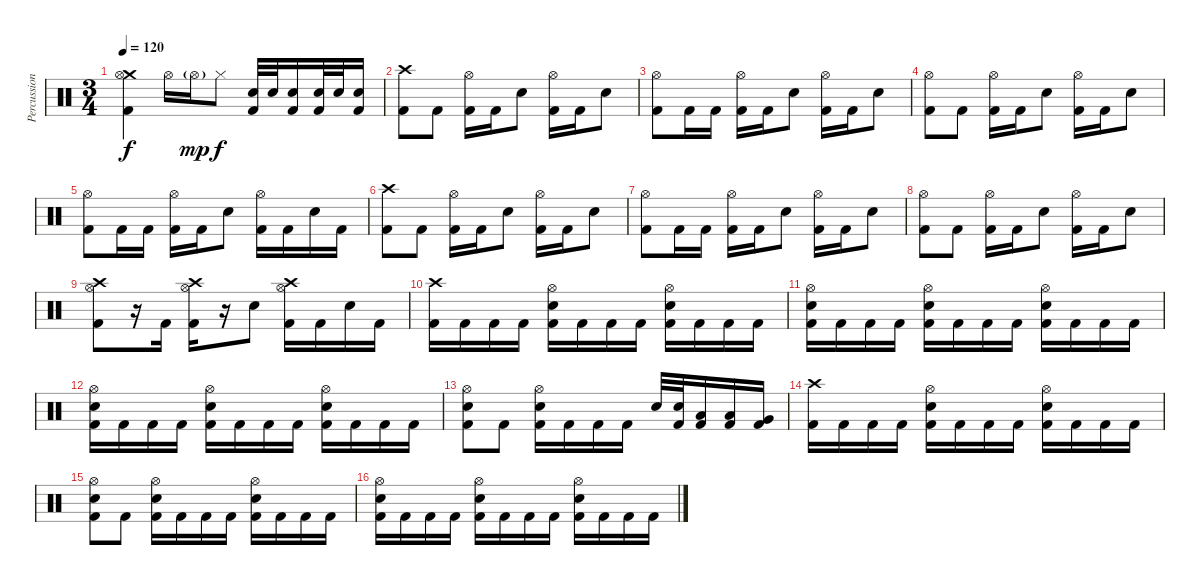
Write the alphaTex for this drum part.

\track ("Percussion" "Percussion") {instrument percussion}
\staff {score}
\articulation defaults
\ts (3 4)
\tempo 120
\clef neutral
\ks c
("Crash medium (hit)" "Hi-Hat (open)"{t} "Kick (hit) 2").4{dy f} "Hi-Hat (open)".16 "Hi-Hat (open)"{g}.16{dy mp} "Hi-Hat (closed)".8{dy f} ("Electric Snare (hit)" "Kick (hit) 2").32 "Electric Snare (hit)".32 ("Electric Snare (hit)" "Kick (hit) 2").16 ("Electric Snare (hit)" "Kick (hit) 2").32 "Electric Snare (hit)".32 ("Electric Snare (hit)" "Kick (hit) 2").16 |
("Crash high (hit)" "Kick (hit) 2").8 "Kick (hit) 2".8 ("Hi-Hat (open)" "Kick (hit) 2").16 "Kick (hit) 2".16 "Electric Snare (hit)".8 ("Hi-Hat (open)" "Kick (hit) 2").16 "Kick (hit) 2".16 "Electric Snare (hit)".8 |
("Hi-Hat (open)" "Kick (hit) 2").8 "Kick (hit) 2".16 "Kick (hit) 2".16 ("Hi-Hat (open)" "Kick (hit) 2").16 "Kick (hit) 2".16 "Electric Snare (hit)".8 ("Hi-Hat (open)" "Kick (hit) 2").16 "Kick (hit) 2".16 "Electric Snare (hit)".8 |
("Hi-Hat (open)" "Kick (hit) 2").8 "Kick (hit) 2".8 ("Hi-Hat (open)" "Kick (hit) 2").16 "Kick (hit) 2".16 "Electric Snare (hit)".8 ("Hi-Hat (open)" "Kick (hit) 2").16 "Kick (hit) 2".16 "Electric Snare (hit)".8 |
("Hi-Hat (open)" "Kick (hit) 2").8 "Kick (hit) 2".16 "Kick (hit) 2".16 ("Hi-Hat (open)" "Kick (hit) 2").16 "Kick (hit) 2".16 "Electric Snare (hit)".8 ("Hi-Hat (open)" "Kick (hit) 2").16 "Kick (hit) 2".16 "Electric Snare (hit)".16 "Kick (hit) 2".16 |
("Crash high (hit)" "Kick (hit) 2").8 "Kick (hit) 2".8 ("Hi-Hat (open)" "Kick (hit) 2").16 "Kick (hit) 2".16 "Electric Snare (hit)".8 ("Hi-Hat (open)" "Kick (hit) 2").16 "Kick (hit) 2".16 "Electric Snare (hit)".8 |
("Hi-Hat (open)" "Kick (hit) 2").8 "Kick (hit) 2".16 "Kick (hit) 2".16 ("Hi-Hat (open)" "Kick (hit) 2").16 "Kick (hit) 2".16 "Electric Snare (hit)".8 ("Hi-Hat (open)" "Kick (hit) 2").16 "Kick (hit) 2".16 "Electric Snare (hit)".8 |
("Hi-Hat (open)" "Kick (hit) 2").8 "Kick (hit) 2".8 ("Hi-Hat (open)" "Kick (hit) 2").16 "Kick (hit) 2".16 "Electric Snare (hit)".8 ("Hi-Hat (open)" "Kick (hit) 2").16 "Kick (hit) 2".16 "Electric Snare (hit)".8 |
("Crash high (hit)" "Hi-Hat (open)" "Kick (hit) 2").8 r.16 "Kick (hit) 2".16 ("Crash high (hit)" "Hi-Hat (open)" "Kick (hit) 2").16 r.16 "Electric Snare (hit)".8 ("Crash high (hit)" "Hi-Hat (open)" "Kick (hit) 2").16 "Kick (hit) 2".16 "Electric Snare (hit)".16 "Kick (hit) 2".16 |
("Crash high (hit)" "Kick (hit) 2").16 "Kick (hit) 2".16 "Kick (hit) 2".16 "Kick (hit) 2".16 ("Hi-Hat (open)" "Electric Snare (hit)" "Kick (hit) 2").16 "Kick (hit) 2".16 "Kick (hit) 2".16 "Kick (hit) 2".16 ("Hi-Hat (open)" "Electric Snare (hit)" "Kick (hit) 2").16 "Kick (hit) 2".16 "Kick (hit) 2".16 "Kick (hit) 2".16 |
("Hi-Hat (open)" "Electric Snare (hit)" "Kick (hit) 2").16 "Kick (hit) 2".16 "Kick (hit) 2".16 "Kick (hit) 2".16 ("Hi-Hat (open)" "Electric Snare (hit)" "Kick (hit) 2").16 "Kick (hit) 2".16 "Kick (hit) 2".16 "Kick (hit) 2".16 ("Hi-Hat (open)" "Electric Snare (hit)" "Kick (hit) 2").16 "Kick (hit) 2".16 "Kick (hit) 2".16 "Kick (hit) 2".16 |
("Hi-Hat (open)" "Electric Snare (hit)" "Kick (hit) 2").16 "Kick (hit) 2".16 "Kick (hit) 2".16 "Kick (hit) 2".16 ("Hi-Hat (open)" "Electric Snare (hit)" "Kick (hit) 2").16 "Kick (hit) 2".16 "Kick (hit) 2".16 "Kick (hit) 2".16 ("Hi-Hat (open)" "Electric Snare (hit)" "Kick (hit) 2").16 "Kick (hit) 2".16 "Kick (hit) 2".16 "Kick (hit) 2".16 |
("Hi-Hat (open)" "Electric Snare (hit)" "Kick (hit) 2").8 "Kick (hit) 2".8 ("Hi-Hat (open)" "Electric Snare (hit)" "Kick (hit) 2").16 "Kick (hit) 2".16 "Kick (hit) 2".16 "Kick (hit) 2".16 "Electric Snare (hit)".32 ("Electric Snare (hit)" "Kick (hit) 2").32 ("Low Tom (hit)" "Kick (hit) 2").16 ("Low Tom (hit)" "Kick (hit) 2").16 ("Very Low Tom (hit)" "Kick (hit) 2").16 |
("Crash high (hit)" "Kick (hit) 2").16 "Kick (hit) 2".16 "Kick (hit) 2".16 "Kick (hit) 2".16 ("Hi-Hat (open)" "Electric Snare (hit)" "Kick (hit) 2").16 "Kick (hit) 2".16 "Kick (hit) 2".16 "Kick (hit) 2".16 ("Hi-Hat (open)" "Electric Snare (hit)" "Kick (hit) 2").16 "Kick (hit) 2".16 "Kick (hit) 2".16 "Kick (hit) 2".16 |
("Hi-Hat (open)" "Electric Snare (hit)" "Kick (hit) 2").8 "Kick (hit) 2".8 ("Hi-Hat (open)" "Electric Snare (hit)" "Kick (hit) 2").16 "Kick (hit) 2".16 "Kick (hit) 2".16 "Kick (hit) 2".16 ("Hi-Hat (open)" "Electric Snare (hit)" "Kick (hit) 2").16 "Kick (hit) 2".16 "Kick (hit) 2".16 "Kick (hit) 2".16 |
("Hi-Hat (open)" "Electric Snare (hit)" "Kick (hit) 2").16 "Kick (hit) 2".16 "Kick (hit) 2".16 "Kick (hit) 2".16 ("Hi-Hat (open)" "Electric Snare (hit)" "Kick (hit) 2").16 "Kick (hit) 2".16 "Kick (hit) 2".16 "Kick (hit) 2".16 ("Hi-Hat (open)" "Electric Snare (hit)" "Kick (hit) 2").16 "Kick (hit) 2".16 "Kick (hit) 2".16 "Kick (hit) 2".16
